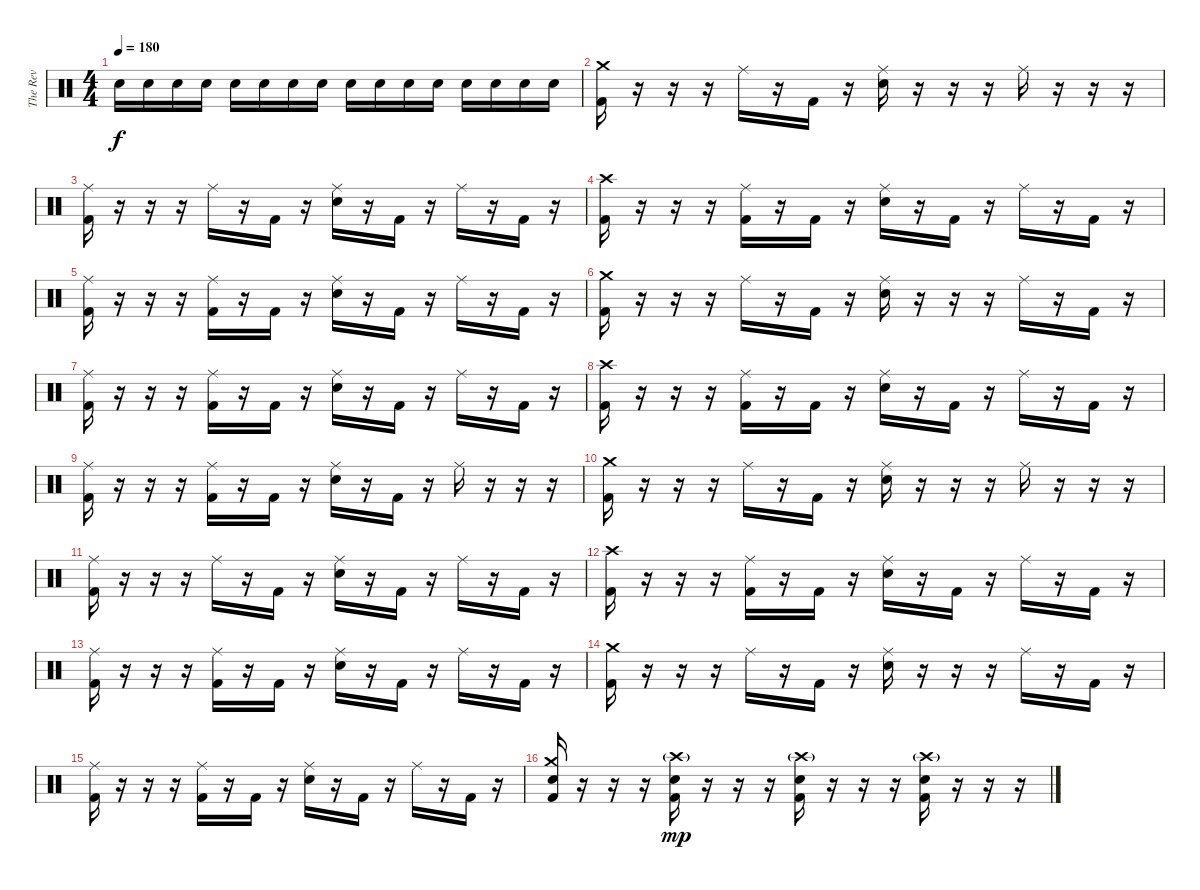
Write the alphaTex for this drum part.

\track ("The Rev" "The Rev") {instrument percussion}
\staff {score}
\articulation defaults
\ts (4 4)
\tempo 180
\clef neutral
\ks c "Snare (hit) 2".16{dy f} "Snare (hit) 2".16 "Snare (hit) 2".16 "Snare (hit) 2".16 "Snare (hit) 2".16 "Snare (hit) 2".16 "Snare (hit) 2".16 "Snare (hit) 2".16 "Snare (hit) 2".16 "Snare (hit) 2".16 "Snare (hit) 2".16 "Snare (hit) 2".16 "Snare (hit) 2".16 "Snare (hit) 2".16 "Snare (hit) 2".16 "Snare (hit) 2".16
|
("Crash medium (hit)" "Kick (hit) 2").16 r.16 r.16 r.16 "Ride (middle)".16 r.16 "Kick (hit) 2".16 r.16 ("Ride (middle)" "Snare (hit) 2").16 r.16 r.16 r.16 "Ride (middle)".16 r.16 r.16 r.16 |
("Ride (middle)" "Kick (hit) 2").16 r.16 r.16 r.16 "Ride (middle)".16 r.16 "Kick (hit) 2".16 r.16 ("Ride (middle)" "Snare (hit) 2").16 r.16 "Kick (hit) 2".16 r.16 "Ride (middle)".16 r.16 "Kick (hit) 2".16 r.16 |
("Crash high (hit)" "Kick (hit) 2").16 r.16 r.16 r.16 ("Ride (middle)" "Kick (hit) 2").16 r.16 "Kick (hit) 2".16 r.16 ("Ride (middle)" "Snare (hit) 2").16 r.16 "Kick (hit) 2".16 r.16 "Ride (middle)".16 r.16 "Kick (hit) 2".16 r.16 |
("Ride (middle)" "Kick (hit) 2").16 r.16 r.16 r.16 ("Ride (middle)" "Kick (hit) 2").16 r.16 "Kick (hit) 2".16 r.16 ("Ride (middle)" "Snare (hit) 2").16 r.16 "Kick (hit) 2".16 r.16 "Ride (middle)".16 r.16 "Kick (hit) 2".16 r.16 |
("Crash medium (hit)" "Kick (hit) 2").16 r.16 r.16 r.16 "Ride (middle)".16 r.16 "Kick (hit) 2".16 r.16 ("Ride (middle)" "Snare (hit) 2").16 r.16 r.16 r.16 "Ride (middle)".16 r.16 "Kick (hit) 2".16 r.16 |
("Ride (middle)" "Kick (hit) 2").16 r.16 r.16 r.16 ("Ride (middle)" "Kick (hit) 2").16 r.16 "Kick (hit) 2".16 r.16 ("Ride (middle)" "Snare (hit) 2").16 r.16 "Kick (hit) 2".16 r.16 "Ride (middle)".16 r.16 "Kick (hit) 2".16 r.16 |
("Crash high (hit)" "Kick (hit) 2").16 r.16 r.16 r.16 ("Ride (middle)" "Kick (hit) 2").16 r.16 "Kick (hit) 2".16 r.16 ("Ride (middle)" "Snare (hit) 2").16 r.16 "Kick (hit) 2".16 r.16 "Ride (middle)".16 r.16 "Kick (hit) 2".16 r.16 |
("Ride (middle)" "Kick (hit) 2").16 r.16 r.16 r.16 ("Ride (middle)" "Kick (hit) 2").16 r.16 "Kick (hit) 2".16 r.16 ("Ride (middle)" "Snare (hit) 2").16 r.16 "Kick (hit) 2".16 r.16 "Ride (middle)".16 r.16 r.16 r.16 |
("Crash medium (hit)" "Kick (hit) 2").16 r.16 r.16 r.16 "Ride (middle)".16 r.16 "Kick (hit) 2".16 r.16 ("Ride (middle)" "Snare (hit) 2").16 r.16 r.16 r.16 "Ride (middle)".16 r.16 r.16 r.16 |
("Ride (middle)" "Kick (hit) 2").16 r.16 r.16 r.16 "Ride (middle)".16 r.16 "Kick (hit) 2".16 r.16 ("Ride (middle)" "Snare (hit) 2").16 r.16 "Kick (hit) 2".16 r.16 "Ride (middle)".16 r.16 "Kick (hit) 2".16 r.16 |
("Crash high (hit)" "Kick (hit) 2").16 r.16 r.16 r.16 ("Ride (middle)" "Kick (hit) 2").16 r.16 "Kick (hit) 2".16 r.16 ("Ride (middle)" "Snare (hit) 2").16 r.16 "Kick (hit) 2".16 r.16 "Ride (middle)".16 r.16 "Kick (hit) 2".16 r.16 |
("Ride (middle)" "Kick (hit) 2").16 r.16 r.16 r.16 ("Ride (middle)" "Kick (hit) 2").16 r.16 "Kick (hit) 2".16 r.16 ("Ride (middle)" "Snare (hit) 2").16 r.16 "Kick (hit) 2".16 r.16 "Ride (middle)".16 r.16 "Kick (hit) 2".16 r.16 |
("Crash medium (hit)" "Kick (hit) 2").16 r.16 r.16 r.16 "Ride (middle)".16 r.16 "Kick (hit) 2".16 r.16 ("Ride (middle)" "Snare (hit) 2").16 r.16 r.16 r.16 "Ride (middle)".16 r.16 "Kick (hit) 2".16 r.16 |
("Ride (middle)" "Kick (hit) 2").16 r.16 r.16 r.16 ("Ride (middle)" "Kick (hit) 2").16 r.16 "Kick (hit) 2".16 r.16 ("Ride (middle)" "Snare (hit) 2").16 r.16 "Kick (hit) 2".16 r.16 "Ride (middle)".16 r.16 "Kick (hit) 2".16 r.16 |
("Crash medium (hit)" "Snare (hit) 2" "Kick (hit) 2").16 r.16 r.16 r.16 ("Crash high (hit)"{g} "Snare (hit) 2" "Kick (hit) 2").16{dy mp} r.16 r.16 r.16 ("Crash high (hit)"{g} "Snare (hit) 2" "Kick (hit) 2").16 r.16 r.16 r.16 ("Crash high (hit)"{g} "Snare (hit) 2" "Kick (hit) 2").16 r.16 r.16 r.16
